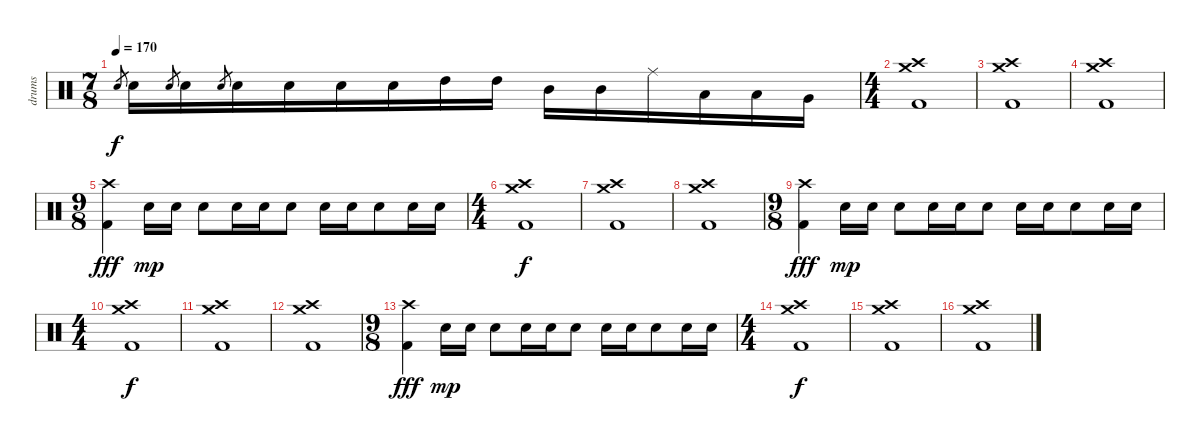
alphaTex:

\track ("drums" "drums") {instrument percussion}
\staff {score}
\articulation defaults
\ts (7 8)
\tempo 170
\clef neutral
\ks c "Snare (hit) 2".8{gr dy f} "Snare (hit) 2".16 "Snare (hit) 2".8{gr} "Snare (hit) 2".16 "Snare (hit) 2".8{gr} "Snare (hit) 2".16 "Snare (hit) 2".16 "Snare (hit) 2".16 "Snare (hit) 2".16 "High Tom (hit)".16 "High Tom (hit)".16 "Mid Tom (hit)".16 "Mid Tom (hit)".16 "Ride (middle)".16 "Low Tom (hit)".16 "Low Floor Tom (hit)".16 "Very Low Tom (hit)".16
|
\ts (4 4)
("Crash high (hit)" "Crash medium (hit)" "Kick (hit) 2").1 |
("Crash high (hit)" "Crash medium (hit)" "Kick (hit) 2").1 |
("Crash high (hit)" "Crash medium (hit)" "Kick (hit) 2").1 |
\ts (9 8)
("Crash high (hit)" "Kick (hit) 2").4{dy fff} "Snare (hit) 2".16{dy mp} "Snare (hit) 2".16 "Snare (hit) 2".8 "Snare (hit) 2".16 "Snare (hit) 2".16 "Snare (hit) 2".8 "Snare (hit) 2".16 "Snare (hit) 2".16 "Snare (hit) 2".8 "Snare (hit) 2".16 "Snare (hit) 2".16 |
\ts (4 4)
("Crash high (hit)" "Crash medium (hit)" "Kick (hit) 2").1{dy f} |
("Crash high (hit)" "Crash medium (hit)" "Kick (hit) 2").1 |
("Crash high (hit)" "Crash medium (hit)" "Kick (hit) 2").1 |
\ts (9 8)
("Crash high (hit)" "Kick (hit) 2").4{dy fff} "Snare (hit) 2".16{dy mp} "Snare (hit) 2".16 "Snare (hit) 2".8 "Snare (hit) 2".16 "Snare (hit) 2".16 "Snare (hit) 2".8 "Snare (hit) 2".16 "Snare (hit) 2".16 "Snare (hit) 2".8 "Snare (hit) 2".16 "Snare (hit) 2".16 |
\ts (4 4)
("Crash high (hit)" "Crash medium (hit)" "Kick (hit) 2").1{dy f} |
("Crash high (hit)" "Crash medium (hit)" "Kick (hit) 2").1 |
("Crash high (hit)" "Crash medium (hit)" "Kick (hit) 2").1 |
\ts (9 8)
("Crash high (hit)" "Kick (hit) 2").4{dy fff} "Snare (hit) 2".16{dy mp} "Snare (hit) 2".16 "Snare (hit) 2".8 "Snare (hit) 2".16 "Snare (hit) 2".16 "Snare (hit) 2".8 "Snare (hit) 2".16 "Snare (hit) 2".16 "Snare (hit) 2".8 "Snare (hit) 2".16 "Snare (hit) 2".16 |
\ts (4 4)
("Crash high (hit)" "Crash medium (hit)" "Kick (hit) 2").1{dy f} |
("Crash high (hit)" "Crash medium (hit)" "Kick (hit) 2").1 |
("Crash high (hit)" "Crash medium (hit)" "Kick (hit) 2").1
